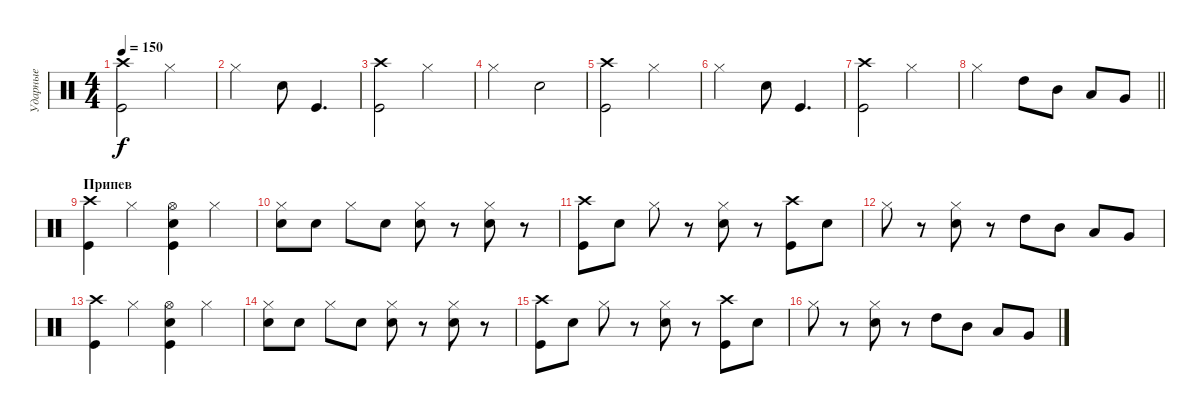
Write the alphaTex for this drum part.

\track ("Ударные" "Ударные") {instrument percussion}
\staff {score}
\articulation defaults
\ts (4 4)
\tempo 150
\clef neutral
\ks c
("Crash high (hit)" "Kick (hit)").2{dy f} "Hi-Hat (closed)".2 |
"Hi-Hat (closed)".2 "Snare (hit) 2".8 "Kick (hit)".4{d} |
("Crash high (hit)" "Kick (hit)").2 "Hi-Hat (closed)".2 |
"Hi-Hat (closed)".2 "Snare (hit) 2".2 |
("Crash high (hit)" "Kick (hit)").2 "Hi-Hat (closed)".2 |
"Hi-Hat (closed)".2 "Snare (hit) 2".8 "Kick (hit)".4{d} |
("Crash high (hit)" "Kick (hit)").2 "Hi-Hat (closed)".2 |
\barLineRight lightlight "Hi-Hat (closed)".2 "High Tom (hit)".8 "Mid Tom (hit)".8 "Low Tom (hit)".8 "Very Low Tom (hit)".8
|
\section ("" "Припев")
("Crash high (hit)" "Kick (hit)").4 "Hi-Hat (closed)".4 ("Hi-Hat (open)" "Snare (hit) 2" "Kick (hit)").4 "Hi-Hat (closed)".4 |
("Hi-Hat (closed)" "Snare (hit) 2").8 "Snare (hit) 2".8 "Hi-Hat (closed)".8 "Snare (hit) 2".8 ("Hi-Hat (closed)" "Snare (hit) 2").8 r.8 ("Hi-Hat (closed)" "Snare (hit) 2").8 r.8 |
("Crash high (hit)" "Kick (hit)").8 "Snare (hit) 2".8 "Hi-Hat (closed)".8 r.8 ("Hi-Hat (closed)" "Snare (hit) 2").8 r.8 ("Crash high (hit)" "Kick (hit)").8 "Snare (hit) 2".8 |
"Hi-Hat (closed)".8 r.8 ("Hi-Hat (closed)" "Snare (hit) 2").8 r.8 "High Tom (hit)".8 "Mid Tom (hit)".8 "Low Tom (hit)".8 "Very Low Tom (hit)".8 |
("Crash high (hit)" "Kick (hit)").4 "Hi-Hat (closed)".4 ("Hi-Hat (open)" "Snare (hit) 2" "Kick (hit)").4 "Hi-Hat (closed)".4 |
("Hi-Hat (closed)" "Snare (hit) 2").8 "Snare (hit) 2".8 "Hi-Hat (closed)".8 "Snare (hit) 2".8 ("Hi-Hat (closed)" "Snare (hit) 2").8 r.8 ("Hi-Hat (closed)" "Snare (hit) 2").8 r.8 |
("Crash high (hit)" "Kick (hit)").8 "Snare (hit) 2".8 "Hi-Hat (closed)".8 r.8 ("Hi-Hat (closed)" "Snare (hit) 2").8 r.8 ("Crash high (hit)" "Kick (hit)").8 "Snare (hit) 2".8 |
"Hi-Hat (closed)".8 r.8 ("Hi-Hat (closed)" "Snare (hit) 2").8 r.8 "High Tom (hit)".8 "Mid Tom (hit)".8 "Low Tom (hit)".8 "Very Low Tom (hit)".8
